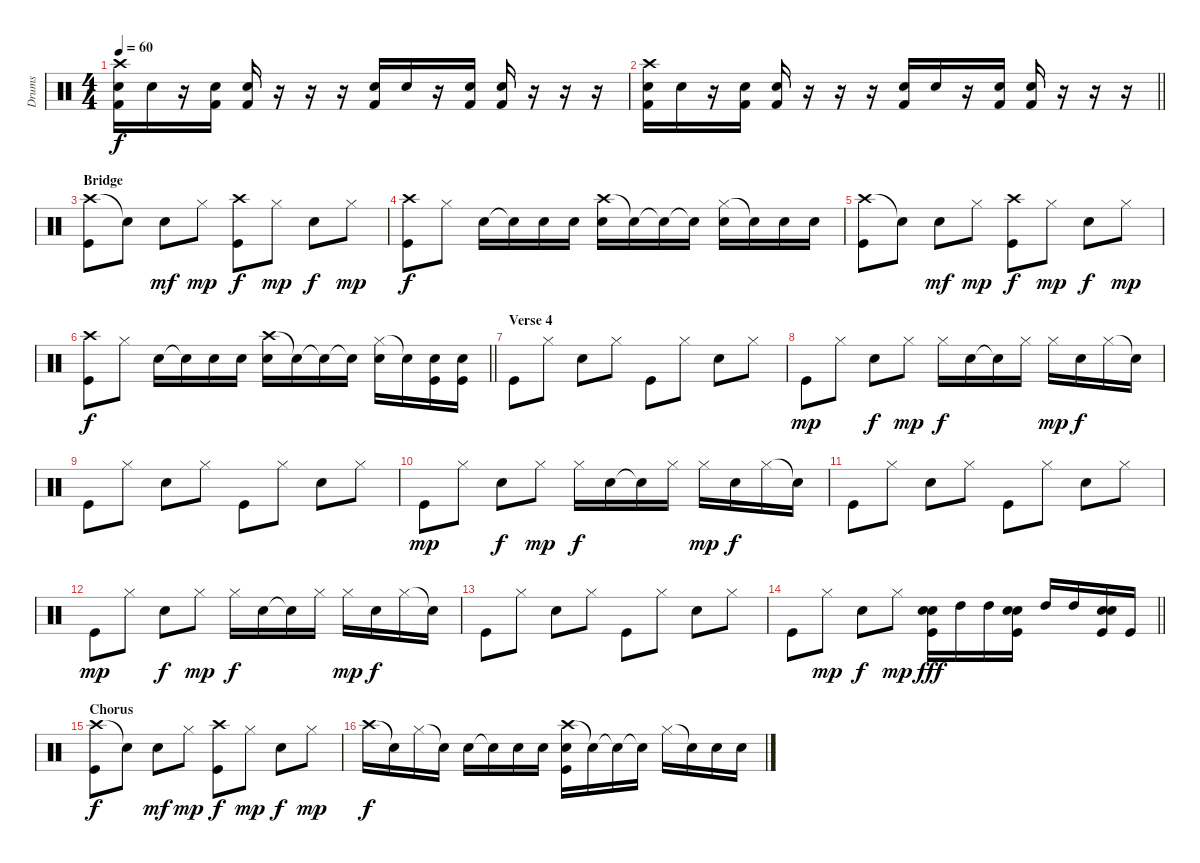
\track ("Drums" "Drums") {instrument percussion}
\staff {score}
\articulation defaults
\ts (4 4)
\tempo 60
\clef neutral
\ks c
("Crash high (hit)" "Snare (hit) 2" "Kick (hit) 2").16{dy f} "Snare (hit) 2".16 r.16 ("Snare (hit) 2" "Kick (hit) 2").16 ("Snare (hit) 2" "Kick (hit) 2").16 r.16 r.16 r.16 ("Snare (hit) 2" "Kick (hit) 2").16 "Snare (hit) 2".16 r.16 ("Snare (hit) 2" "Kick (hit) 2").16 ("Snare (hit) 2" "Kick (hit) 2").16 r.16 r.16 r.16 |
\barLineRight lightlight
("Crash high (hit)" "Snare (hit) 2" "Kick (hit) 2").16 "Snare (hit) 2".16 r.16 ("Snare (hit) 2" "Kick (hit) 2").16 ("Snare (hit) 2" "Kick (hit) 2").16 r.16 r.16 r.16 ("Snare (hit) 2" "Kick (hit) 2").16 "Snare (hit) 2".16 r.16 ("Snare (hit) 2" "Kick (hit) 2").16 ("Snare (hit) 2" "Kick (hit) 2").16 r.16 r.16 r.16 |
\section ("" "Bridge")
("Crash high (hit)" "Kick (hit)").8 "Snare (hit)"{t}.8 "Snare (hit) 2".8{dy mf} "Hi-Hat (closed)".8{dy mp} ("Crash high (hit)" "Kick (hit)").8{dy f} "Hi-Hat (closed)".8{dy mp} "Snare (hit) 2".8{dy f} "Hi-Hat (closed)".8{dy mp} |
("Crash high (hit)" "Kick (hit)").8{dy f} "Hi-Hat (closed)".8 "Snare (hit) 2".16 "Snare (hit)"{t}.16 "Snare (hit) 2".16 "Snare (hit) 2".16 ("Crash high (hit)" "Snare (hit) 2").16 "Snare (hit) 2"{t}.16 "Snare (hit)"{t}.16 "Snare (hit)"{t}.16 ("Hi-Hat (closed)" "Snare (hit) 2").16 "Snare (hit)"{t}.16 "Snare (hit) 2".16 "Snare (hit) 2".16 |
("Crash high (hit)" "Kick (hit)").8 "Snare (hit)"{t}.8 "Snare (hit) 2".8{dy mf} "Hi-Hat (closed)".8{dy mp} ("Crash high (hit)" "Kick (hit)").8{dy f} "Hi-Hat (closed)".8{dy mp} "Snare (hit) 2".8{dy f} "Hi-Hat (closed)".8{dy mp} |
\barLineRight lightlight
("Crash high (hit)" "Kick (hit)").8{dy f} "Hi-Hat (closed)".8 "Snare (hit) 2".16 "Snare (hit)"{t}.16 "Snare (hit) 2".16 "Snare (hit) 2".16 ("Crash high (hit)" "Snare (hit) 2").16 "Snare (hit) 2"{t}.16 "Snare (hit)"{t}.16 "Snare (hit)"{t}.16 ("Hi-Hat (closed)" "Snare (hit) 2").16 "Snare (hit)"{t}.16 ("Snare (hit) 2" "Kick (hit)").16 ("Snare (hit) 2" "Kick (hit)").16 |
\section ("" "Verse 4")
"Kick (hit)".8 "Hi-Hat (closed)".8 "Snare (hit) 2".8 "Hi-Hat (closed)".8 "Kick (hit)".8 "Hi-Hat (closed)".8 "Snare (hit) 2".8 "Hi-Hat (closed)".8 |
"Kick (hit)".8{dy mp} "Hi-Hat (closed)".8 "Snare (hit) 2".8{dy f} "Hi-Hat (closed)".8{dy mp} "Hi-Hat (closed)".16{dy f} "Snare (hit) 2".16 "Snare (hit)"{t}.16 "Hi-Hat (closed)".16 "Hi-Hat (closed)".16{dy mp} "Snare (hit) 2".16{dy f} "Hi-Hat (closed)".16 "Snare (hit)"{t}.16 |
"Kick (hit)".8 "Hi-Hat (closed)".8 "Snare (hit) 2".8 "Hi-Hat (closed)".8 "Kick (hit)".8 "Hi-Hat (closed)".8 "Snare (hit) 2".8 "Hi-Hat (closed)".8 |
"Kick (hit)".8{dy mp} "Hi-Hat (closed)".8 "Snare (hit) 2".8{dy f} "Hi-Hat (closed)".8{dy mp} "Hi-Hat (closed)".16{dy f} "Snare (hit) 2".16 "Snare (hit)"{t}.16 "Hi-Hat (closed)".16 "Hi-Hat (closed)".16{dy mp} "Snare (hit) 2".16{dy f} "Hi-Hat (closed)".16 "Snare (hit)"{t}.16 |
"Kick (hit)".8 "Hi-Hat (closed)".8 "Snare (hit) 2".8 "Hi-Hat (closed)".8 "Kick (hit)".8 "Hi-Hat (closed)".8 "Snare (hit) 2".8 "Hi-Hat (closed)".8 |
"Kick (hit)".8{dy mp} "Hi-Hat (closed)".8 "Snare (hit) 2".8{dy f} "Hi-Hat (closed)".8{dy mp} "Hi-Hat (closed)".16{dy f} "Snare (hit) 2".16 "Snare (hit)"{t}.16 "Hi-Hat (closed)".16 "Hi-Hat (closed)".16{dy mp} "Snare (hit) 2".16{dy f} "Hi-Hat (closed)".16 "Snare (hit)"{t}.16 |
"Kick (hit)".8 "Hi-Hat (closed)".8 "Snare (hit) 2".8 "Hi-Hat (closed)".8 "Kick (hit)".8 "Hi-Hat (closed)".8 "Snare (hit) 2".8 "Hi-Hat (closed)".8 |
\barLineRight lightlight "Kick (hit)".8 "Hi-Hat (closed)".8{dy mp} "Snare (hit) 2".8{dy f} "Hi-Hat (closed)".8{dy mp}
("Electric Snare (hit)" "Snare (hit) 2" "Kick (hit)").16{dy fff} "High Tom (hit)".16 "High Tom (hit)".16 ("Electric Snare (hit)" "Snare (hit) 2" "Kick (hit)").16 "High Tom (hit)".16 "High Tom (hit)".16 ("Electric Snare (hit)" "Snare (hit) 2" "Kick (hit)").16 "Kick (hit)".16 |
\section ("" "Chorus")
("Crash high (hit)" "Kick (hit)").8{dy f} "Snare (hit)"{t}.8 "Snare (hit) 2".8{dy mf} "Hi-Hat (closed)".8{dy mp} ("Crash high (hit)" "Kick (hit)").8{dy f} "Hi-Hat (closed)".8{dy mp} "Snare (hit) 2".8{dy f} "Hi-Hat (closed)".8{dy mp} |
"Crash high (hit)".16{dy f} "Snare (hit)"{t}.16 "Hi-Hat (closed)".16 "Snare (hit)"{t}.16 "Snare (hit) 2".16 "Snare (hit)"{t}.16 "Snare (hit) 2".16 "Snare (hit) 2".16 ("Crash high (hit)" "Snare (hit) 2" "Kick (hit)").16 "Snare (hit)"{t}.16 "Snare (hit)"{t}.16 "Snare (hit) 2"{t}.16 "Hi-Hat (closed)".16 "Snare (hit)"{t}.16 "Snare (hit) 2".16 "Snare (hit) 2".16
